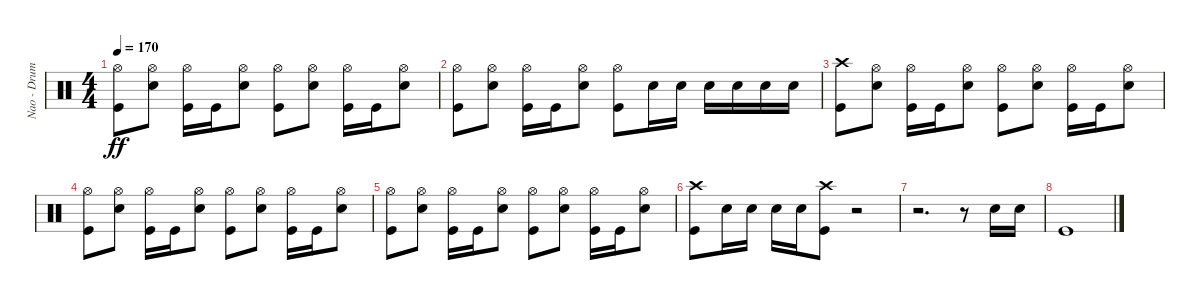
\track ("Nao - Drums" "Nao - Drum") {instrument percussion}
\staff {score}
\articulation defaults
\ts (4 4)
\tempo 170
\clef neutral
\ks c
("Hi-Hat (open)" "Kick (hit)").8{dy ff} ("Snare (hit) 2" "Hi-Hat (open)").8 ("Hi-Hat (open)" "Kick (hit)").16 "Kick (hit)".16 ("Hi-Hat (open)" "Snare (hit) 2").8 ("Hi-Hat (open)" "Kick (hit)").8 ("Snare (hit) 2" "Hi-Hat (open)").8 ("Hi-Hat (open)" "Kick (hit)").16 "Kick (hit)".16 ("Hi-Hat (open)" "Snare (hit) 2").8 |
("Hi-Hat (open)" "Kick (hit)").8 ("Snare (hit) 2" "Hi-Hat (open)").8 ("Hi-Hat (open)" "Kick (hit)").16 "Kick (hit)".16 ("Hi-Hat (open)" "Snare (hit) 2").8 ("Hi-Hat (open)" "Kick (hit)").8 "Snare (hit) 2".16 "Snare (hit) 2".16 "Snare (hit) 2".16 "Snare (hit) 2".16 "Snare (hit) 2".16 "Snare (hit) 2".16 |
("Kick (hit)" "Crash high (hit)").8 ("Snare (hit) 2" "Hi-Hat (open)").8 ("Hi-Hat (open)" "Kick (hit)").16 "Kick (hit)".16 ("Hi-Hat (open)" "Snare (hit) 2").8 ("Hi-Hat (open)" "Kick (hit)").8 ("Snare (hit) 2" "Hi-Hat (open)").8 ("Hi-Hat (open)" "Kick (hit)").16 "Kick (hit)".16 ("Hi-Hat (open)" "Snare (hit) 2").8 |
("Hi-Hat (open)" "Kick (hit)").8 ("Snare (hit) 2" "Hi-Hat (open)").8 ("Hi-Hat (open)" "Kick (hit)").16 "Kick (hit)".16 ("Hi-Hat (open)" "Snare (hit) 2").8 ("Hi-Hat (open)" "Kick (hit)").8 ("Snare (hit) 2" "Hi-Hat (open)").8 ("Hi-Hat (open)" "Kick (hit)").16 "Kick (hit)".16 ("Hi-Hat (open)" "Snare (hit) 2").8 |
("Hi-Hat (open)" "Kick (hit)").8 ("Snare (hit) 2" "Hi-Hat (open)").8 ("Hi-Hat (open)" "Kick (hit)").16 "Kick (hit)".16 ("Hi-Hat (open)" "Snare (hit) 2").8 ("Hi-Hat (open)" "Kick (hit)").8 ("Snare (hit) 2" "Hi-Hat (open)").8 ("Hi-Hat (open)" "Kick (hit)").16 "Kick (hit)".16 ("Hi-Hat (open)" "Snare (hit) 2").8 |
("Crash high (hit)" "Kick (hit)").8 "Snare (hit) 2".16 "Snare (hit) 2".16 "Snare (hit) 2".16 "Snare (hit) 2".16 ("Crash high (hit)" "Kick (hit)").8 r.2 |
r.2{d} r.8 "Snare (hit) 2".16 "Snare (hit) 2".16 |
"Kick (hit)".1
